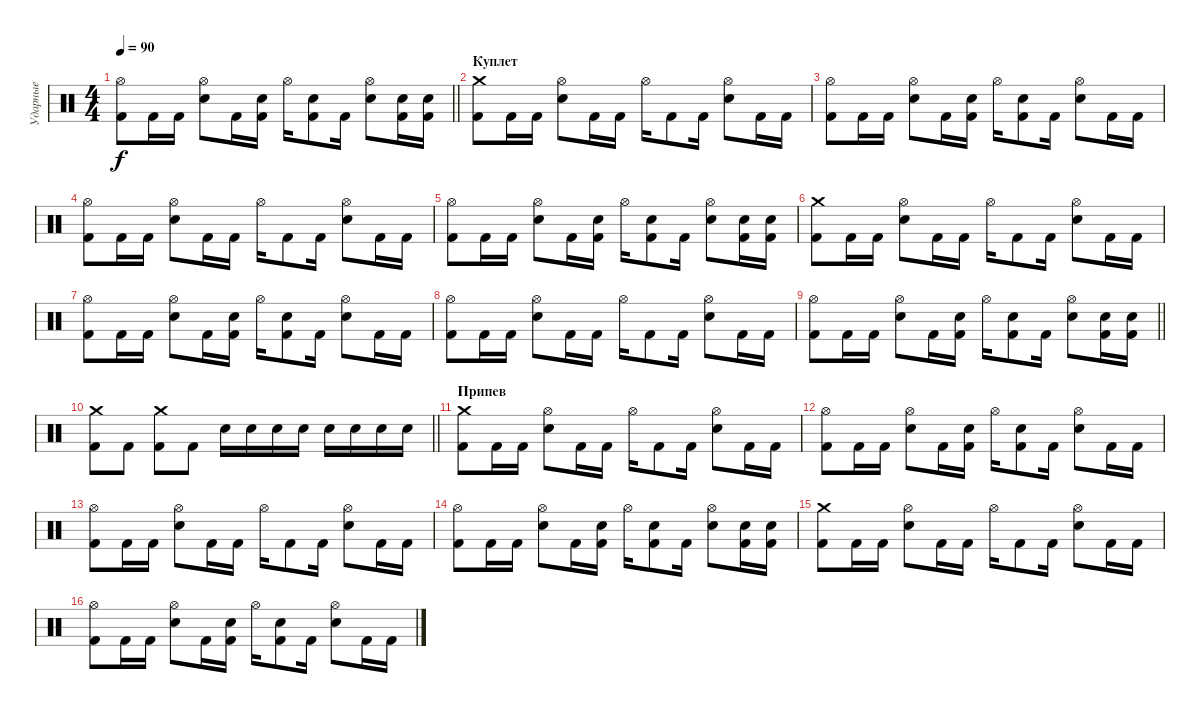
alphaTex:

\track ("Ударные" "Ударные") {instrument percussion}
\staff {score}
\articulation defaults
\ts (4 4)
\tempo 90
\clef neutral
\barLineRight lightlight
\ks c
("Kick (hit) 2" "Hi-Hat (open)").8{dy f} "Kick (hit) 2".16 "Kick (hit) 2".16 ("Electric Snare (hit)" "Hi-Hat (open)").8 "Kick (hit) 2".16 ("Kick (hit) 2" "Electric Snare (hit)").16 "Hi-Hat (open)".16 ("Kick (hit) 2" "Electric Snare (hit)").8 "Kick (hit) 2".16 ("Electric Snare (hit)" "Hi-Hat (open)").8 ("Kick (hit) 2" "Electric Snare (hit)").16 ("Kick (hit) 2" "Electric Snare (hit)").16 |
\section ("" "Куплет")
("Kick (hit) 2" "Crash medium (hit)").8 "Kick (hit) 2".16 "Kick (hit) 2".16 ("Electric Snare (hit)" "Hi-Hat (open)").8 "Kick (hit) 2".16 "Kick (hit) 2".16 "Hi-Hat (open)".16 "Kick (hit) 2".8 "Kick (hit) 2".16 ("Electric Snare (hit)" "Hi-Hat (open)").8 "Kick (hit) 2".16 "Kick (hit) 2".16 |
("Kick (hit) 2" "Hi-Hat (open)").8 "Kick (hit) 2".16 "Kick (hit) 2".16 ("Electric Snare (hit)" "Hi-Hat (open)").8 "Kick (hit) 2".16 ("Kick (hit) 2" "Electric Snare (hit)").16 "Hi-Hat (open)".16 ("Kick (hit) 2" "Electric Snare (hit)").8 "Kick (hit) 2".16 ("Electric Snare (hit)" "Hi-Hat (open)").8 "Kick (hit) 2".16 "Kick (hit) 2".16 |
("Kick (hit) 2" "Hi-Hat (open)").8 "Kick (hit) 2".16 "Kick (hit) 2".16 ("Electric Snare (hit)" "Hi-Hat (open)").8 "Kick (hit) 2".16 "Kick (hit) 2".16 "Hi-Hat (open)".16 "Kick (hit) 2".8 "Kick (hit) 2".16 ("Electric Snare (hit)" "Hi-Hat (open)").8 "Kick (hit) 2".16 "Kick (hit) 2".16 |
("Kick (hit) 2" "Hi-Hat (open)").8 "Kick (hit) 2".16 "Kick (hit) 2".16 ("Electric Snare (hit)" "Hi-Hat (open)").8 "Kick (hit) 2".16 ("Kick (hit) 2" "Electric Snare (hit)").16 "Hi-Hat (open)".16 ("Kick (hit) 2" "Electric Snare (hit)").8 "Kick (hit) 2".16 ("Electric Snare (hit)" "Hi-Hat (open)").8 ("Kick (hit) 2" "Electric Snare (hit)").16 ("Kick (hit) 2" "Electric Snare (hit)").16 |
("Kick (hit) 2" "Crash medium (hit)").8 "Kick (hit) 2".16 "Kick (hit) 2".16 ("Electric Snare (hit)" "Hi-Hat (open)").8 "Kick (hit) 2".16 "Kick (hit) 2".16 "Hi-Hat (open)".16 "Kick (hit) 2".8 "Kick (hit) 2".16 ("Electric Snare (hit)" "Hi-Hat (open)").8 "Kick (hit) 2".16 "Kick (hit) 2".16 |
("Kick (hit) 2" "Hi-Hat (open)").8 "Kick (hit) 2".16 "Kick (hit) 2".16 ("Electric Snare (hit)" "Hi-Hat (open)").8 "Kick (hit) 2".16 ("Kick (hit) 2" "Electric Snare (hit)").16 "Hi-Hat (open)".16 ("Kick (hit) 2" "Electric Snare (hit)").8 "Kick (hit) 2".16 ("Electric Snare (hit)" "Hi-Hat (open)").8 "Kick (hit) 2".16 "Kick (hit) 2".16 |
("Kick (hit) 2" "Hi-Hat (open)").8 "Kick (hit) 2".16 "Kick (hit) 2".16 ("Electric Snare (hit)" "Hi-Hat (open)").8 "Kick (hit) 2".16 "Kick (hit) 2".16 "Hi-Hat (open)".16 "Kick (hit) 2".8 "Kick (hit) 2".16 ("Electric Snare (hit)" "Hi-Hat (open)").8 "Kick (hit) 2".16 "Kick (hit) 2".16 |
\barLineRight lightlight
("Kick (hit) 2" "Hi-Hat (open)").8 "Kick (hit) 2".16 "Kick (hit) 2".16 ("Electric Snare (hit)" "Hi-Hat (open)").8 "Kick (hit) 2".16 ("Kick (hit) 2" "Electric Snare (hit)").16 "Hi-Hat (open)".16 ("Kick (hit) 2" "Electric Snare (hit)").8 "Kick (hit) 2".16 ("Electric Snare (hit)" "Hi-Hat (open)").8 ("Kick (hit) 2" "Electric Snare (hit)").16 ("Kick (hit) 2" "Electric Snare (hit)").16 |
\barLineRight lightlight
("Kick (hit) 2" "Crash medium (hit)").8 "Kick (hit) 2".8 ("Kick (hit) 2" "Crash medium (hit)").8 "Kick (hit) 2".8 "Electric Snare (hit)".16 "Electric Snare (hit)".16 "Electric Snare (hit)".16 "Electric Snare (hit)".16 "Electric Snare (hit)".16 "Electric Snare (hit)".16 "Electric Snare (hit)".16 "Electric Snare (hit)".16 |
\section ("" "Припев")
("Kick (hit) 2" "Crash medium (hit)").8 "Kick (hit) 2".16 "Kick (hit) 2".16 ("Electric Snare (hit)" "Hi-Hat (open)").8 "Kick (hit) 2".16 "Kick (hit) 2".16 "Hi-Hat (open)".16 "Kick (hit) 2".8 "Kick (hit) 2".16 ("Electric Snare (hit)" "Hi-Hat (open)").8 "Kick (hit) 2".16 "Kick (hit) 2".16 |
("Kick (hit) 2" "Hi-Hat (open)").8 "Kick (hit) 2".16 "Kick (hit) 2".16 ("Electric Snare (hit)" "Hi-Hat (open)").8 "Kick (hit) 2".16 ("Kick (hit) 2" "Electric Snare (hit)").16 "Hi-Hat (open)".16 ("Kick (hit) 2" "Electric Snare (hit)").8 "Kick (hit) 2".16 ("Electric Snare (hit)" "Hi-Hat (open)").8 "Kick (hit) 2".16 "Kick (hit) 2".16 |
("Kick (hit) 2" "Hi-Hat (open)").8 "Kick (hit) 2".16 "Kick (hit) 2".16 ("Electric Snare (hit)" "Hi-Hat (open)").8 "Kick (hit) 2".16 "Kick (hit) 2".16 "Hi-Hat (open)".16 "Kick (hit) 2".8 "Kick (hit) 2".16 ("Electric Snare (hit)" "Hi-Hat (open)").8 "Kick (hit) 2".16 "Kick (hit) 2".16 |
("Kick (hit) 2" "Hi-Hat (open)").8 "Kick (hit) 2".16 "Kick (hit) 2".16 ("Electric Snare (hit)" "Hi-Hat (open)").8 "Kick (hit) 2".16 ("Kick (hit) 2" "Electric Snare (hit)").16 "Hi-Hat (open)".16 ("Kick (hit) 2" "Electric Snare (hit)").8 "Kick (hit) 2".16 ("Electric Snare (hit)" "Hi-Hat (open)").8 ("Kick (hit) 2" "Electric Snare (hit)").16 ("Kick (hit) 2" "Electric Snare (hit)").16 |
("Kick (hit) 2" "Crash medium (hit)").8 "Kick (hit) 2".16 "Kick (hit) 2".16 ("Electric Snare (hit)" "Hi-Hat (open)").8 "Kick (hit) 2".16 "Kick (hit) 2".16 "Hi-Hat (open)".16 "Kick (hit) 2".8 "Kick (hit) 2".16 ("Electric Snare (hit)" "Hi-Hat (open)").8 "Kick (hit) 2".16 "Kick (hit) 2".16 |
("Kick (hit) 2" "Hi-Hat (open)").8 "Kick (hit) 2".16 "Kick (hit) 2".16 ("Electric Snare (hit)" "Hi-Hat (open)").8 "Kick (hit) 2".16 ("Kick (hit) 2" "Electric Snare (hit)").16 "Hi-Hat (open)".16 ("Kick (hit) 2" "Electric Snare (hit)").8 "Kick (hit) 2".16 ("Electric Snare (hit)" "Hi-Hat (open)").8 "Kick (hit) 2".16 "Kick (hit) 2".16
